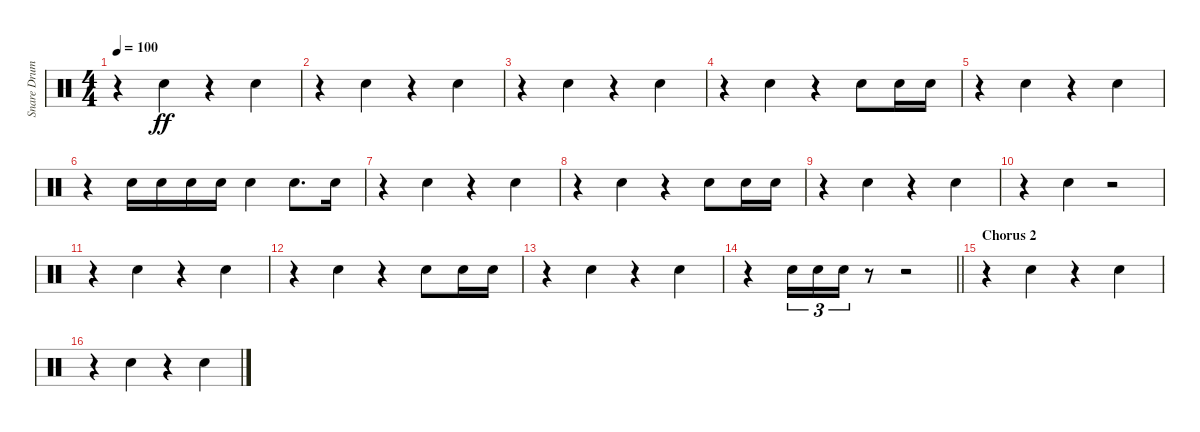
\track ("Snare Drum" "Snare Drum") {instrument percussion}
\staff {score}
\articulation defaults
\ts (4 4)
\tempo 100
\clef neutral
\ks c
r.4{dy ff} "Electric Snare (hit)".4 r.4 "Electric Snare (hit)".4 |
r.4 "Electric Snare (hit)".4 r.4 "Electric Snare (hit)".4 |
r.4 "Electric Snare (hit)".4 r.4 "Electric Snare (hit)".4 |
r.4 "Electric Snare (hit)".4 r.4 "Electric Snare (hit)".8 "Electric Snare (hit)".16 "Electric Snare (hit)".16 |
r.4 "Electric Snare (hit)".4 r.4 "Electric Snare (hit)".4 |
r.4 "Electric Snare (hit)".16 "Electric Snare (hit)".16 "Electric Snare (hit)".16 "Electric Snare (hit)".16 "Electric Snare (hit)".4 "Electric Snare (hit)".8{d} "Electric Snare (hit)".16 |
r.4 "Electric Snare (hit)".4 r.4 "Electric Snare (hit)".4 |
r.4 "Electric Snare (hit)".4 r.4 "Electric Snare (hit)".8 "Electric Snare (hit)".16 "Electric Snare (hit)".16 |
r.4 "Electric Snare (hit)".4 r.4 "Electric Snare (hit)".4 |
r.4 "Electric Snare (hit)".4 r.2 |
r.4 "Electric Snare (hit)".4 r.4 "Electric Snare (hit)".4 |
r.4 "Electric Snare (hit)".4 r.4 "Electric Snare (hit)".8 "Electric Snare (hit)".16 "Electric Snare (hit)".16 |
r.4 "Electric Snare (hit)".4 r.4 "Electric Snare (hit)".4 |
\barLineRight lightlight
r.4 "Electric Snare (hit)".16{tu (3 2)} "Electric Snare (hit)".16{tu (3 2)} "Electric Snare (hit)".16{tu (3 2)} r.8 r.2 |
\section ("" "Chorus 2")
r.4 "Electric Snare (hit)".4 r.4 "Electric Snare (hit)".4 |
r.4 "Electric Snare (hit)".4 r.4 "Electric Snare (hit)".4
